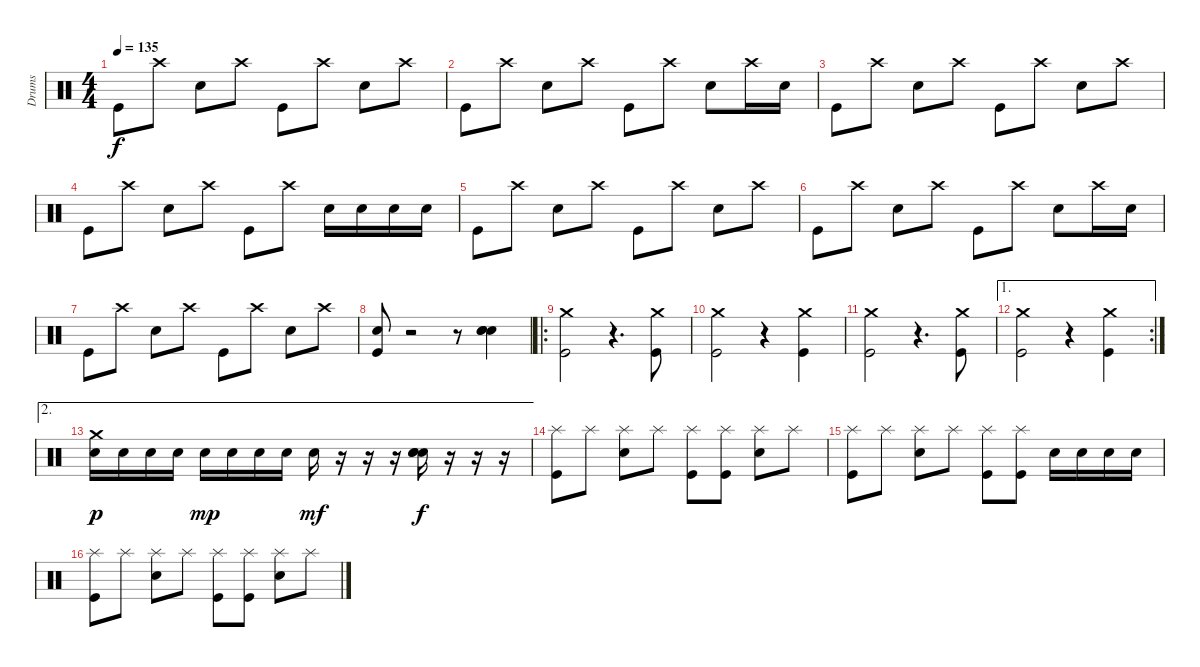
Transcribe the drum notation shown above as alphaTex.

\track ("Drums" "Drums") {instrument percussion}
\staff {score}
\articulation defaults
\ts (4 4)
\tempo 135
\clef neutral
\ks c "Kick (hit)".8{dy f} "Crash high (hit)".8 "Electric Snare (hit)".8 "Crash high (hit)".8 "Kick (hit)".8 "Crash high (hit)".8 "Electric Snare (hit)".8 "Crash high (hit)".8
|
"Kick (hit)".8 "Crash high (hit)".8 "Electric Snare (hit)".8 "Crash high (hit)".8 "Kick (hit)".8 "Crash high (hit)".8 "Electric Snare (hit)".8 "Crash high (hit)".16 "Electric Snare (hit)".16 |
"Kick (hit)".8 "Crash high (hit)".8 "Electric Snare (hit)".8 "Crash high (hit)".8 "Kick (hit)".8 "Crash high (hit)".8 "Electric Snare (hit)".8 "Crash high (hit)".8 |
"Kick (hit)".8 "Crash high (hit)".8 "Electric Snare (hit)".8 "Crash high (hit)".8 "Kick (hit)".8 "Crash high (hit)".8 "Electric Snare (hit)".16 "Electric Snare (hit)".16 "Electric Snare (hit)".16 "Electric Snare (hit)".16 |
"Kick (hit)".8 "Crash high (hit)".8 "Electric Snare (hit)".8 "Crash high (hit)".8 "Kick (hit)".8 "Crash high (hit)".8 "Electric Snare (hit)".8 "Crash high (hit)".8 |
"Kick (hit)".8 "Crash high (hit)".8 "Electric Snare (hit)".8 "Crash high (hit)".8 "Kick (hit)".8 "Crash high (hit)".8 "Electric Snare (hit)".8 "Crash high (hit)".16 "Electric Snare (hit)".16 |
"Kick (hit)".8 "Crash high (hit)".8 "Electric Snare (hit)".8 "Crash high (hit)".8 "Kick (hit)".8 "Crash high (hit)".8 "Electric Snare (hit)".8 "Crash high (hit)".8 |
("Electric Snare (hit)" "Kick (hit)").8 r.2 r.8 ("Hand Clap (hit)" "Hand Clap (hit)" "Hand Clap (hit)").4 |
\ro
("Crash medium (hit)" "Kick (hit)").2 r.4{d} ("Crash medium (hit)" "Kick (hit)").8 |
("Crash medium (hit)" "Kick (hit)").2 r.4 ("Crash medium (hit)" "Kick (hit)").4 |
("Crash medium (hit)" "Kick (hit)").2 r.4{d} ("Crash medium (hit)" "Kick (hit)").8 |
\ae 1
\rc 2
("Crash medium (hit)" "Kick (hit)").2 r.4 ("Crash medium (hit)" "Kick (hit)").4 |
\ae 2
("Crash medium (hit)" "Electric Snare (hit)").16{dy p} "Electric Snare (hit)".16 "Electric Snare (hit)".16 "Electric Snare (hit)".16 "Electric Snare (hit)".16{dy mp} "Electric Snare (hit)".16 "Electric Snare (hit)".16 "Electric Snare (hit)".16 "Electric Snare (hit)".16{dy mf} r.16 r.16 r.16 ("Hand Clap (hit)" "Hand Clap (hit)" "Hand Clap (hit)").16{dy f} r.16 r.16 r.16 |
("Splash (hit)" "Kick (hit)").8 "Splash (hit)".8 ("Splash (hit)" "Electric Snare (hit)").8 "Splash (hit)".8 ("Splash (hit)" "Kick (hit)").8 ("Splash (hit)" "Kick (hit)").8 ("Splash (hit)" "Electric Snare (hit)").8 "Splash (hit)".8 |
("Splash (hit)" "Kick (hit)").8 "Splash (hit)".8 ("Splash (hit)" "Electric Snare (hit)").8 "Splash (hit)".8 ("Splash (hit)" "Kick (hit)").8 ("Splash (hit)" "Kick (hit)").8 "Electric Snare (hit)".16 "Electric Snare (hit)".16 "Electric Snare (hit)".16 "Electric Snare (hit)".16 |
("Splash (hit)" "Kick (hit)").8 "Splash (hit)".8 ("Splash (hit)" "Electric Snare (hit)").8 "Splash (hit)".8 ("Splash (hit)" "Kick (hit)").8 ("Splash (hit)" "Kick (hit)").8 ("Splash (hit)" "Electric Snare (hit)").8 "Splash (hit)".8
